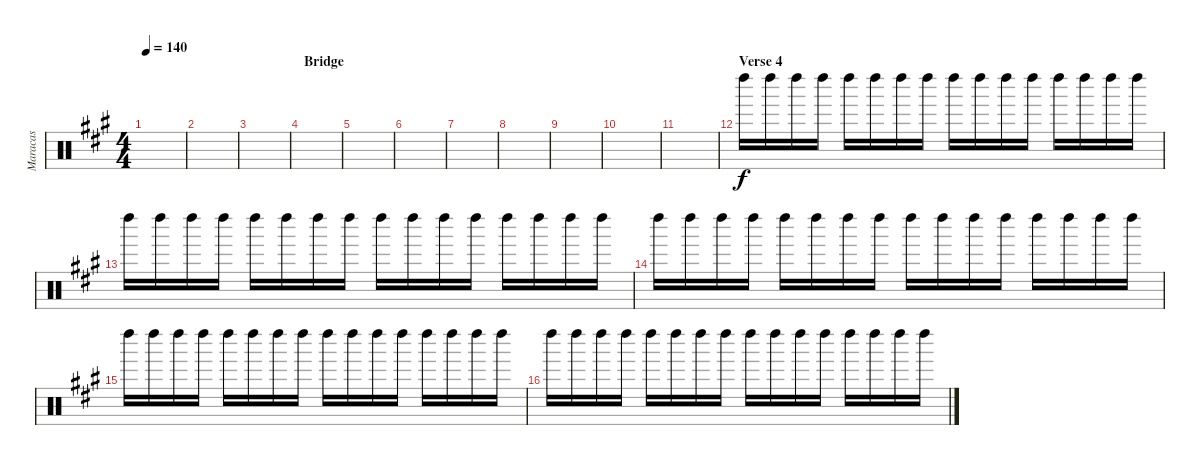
\track ("Maracas" "Maracas") {instrument percussion}
\staff {score}
\articulation defaults
\ts (4 4)
\tempo 140
\clef neutral
\ks a
|
|
|
\section ("" "Bridge")
|
|
|
|
|
|
|
|
\section ("" "Verse 4")
"Left Maraca (hit)".16 "Left Maraca (hit)".16 "Left Maraca (hit)".16 "Left Maraca (hit)".16 "Left Maraca (hit)".16 "Left Maraca (hit)".16 "Left Maraca (hit)".16 "Left Maraca (hit)".16 "Left Maraca (hit)".16 "Left Maraca (hit)".16 "Left Maraca (hit)".16 "Left Maraca (hit)".16 "Left Maraca (hit)".16 "Left Maraca (hit)".16 "Left Maraca (hit)".16 "Left Maraca (hit)".16 |
"Left Maraca (hit)".16 "Left Maraca (hit)".16 "Left Maraca (hit)".16 "Left Maraca (hit)".16 "Left Maraca (hit)".16 "Left Maraca (hit)".16 "Left Maraca (hit)".16 "Left Maraca (hit)".16 "Left Maraca (hit)".16 "Left Maraca (hit)".16 "Left Maraca (hit)".16 "Left Maraca (hit)".16 "Left Maraca (hit)".16 "Left Maraca (hit)".16 "Left Maraca (hit)".16 "Left Maraca (hit)".16 |
"Left Maraca (hit)".16 "Left Maraca (hit)".16 "Left Maraca (hit)".16 "Left Maraca (hit)".16 "Left Maraca (hit)".16 "Left Maraca (hit)".16 "Left Maraca (hit)".16 "Left Maraca (hit)".16 "Left Maraca (hit)".16 "Left Maraca (hit)".16 "Left Maraca (hit)".16 "Left Maraca (hit)".16 "Left Maraca (hit)".16 "Left Maraca (hit)".16 "Left Maraca (hit)".16 "Left Maraca (hit)".16 |
"Left Maraca (hit)".16 "Left Maraca (hit)".16 "Left Maraca (hit)".16 "Left Maraca (hit)".16 "Left Maraca (hit)".16 "Left Maraca (hit)".16 "Left Maraca (hit)".16 "Left Maraca (hit)".16 "Left Maraca (hit)".16 "Left Maraca (hit)".16 "Left Maraca (hit)".16 "Left Maraca (hit)".16 "Left Maraca (hit)".16 "Left Maraca (hit)".16 "Left Maraca (hit)".16 "Left Maraca (hit)".16 |
"Left Maraca (hit)".16 "Left Maraca (hit)".16 "Left Maraca (hit)".16 "Left Maraca (hit)".16 "Left Maraca (hit)".16 "Left Maraca (hit)".16 "Left Maraca (hit)".16 "Left Maraca (hit)".16 "Left Maraca (hit)".16 "Left Maraca (hit)".16 "Left Maraca (hit)".16 "Left Maraca (hit)".16 "Left Maraca (hit)".16 "Left Maraca (hit)".16 "Left Maraca (hit)".16 "Left Maraca (hit)".16
